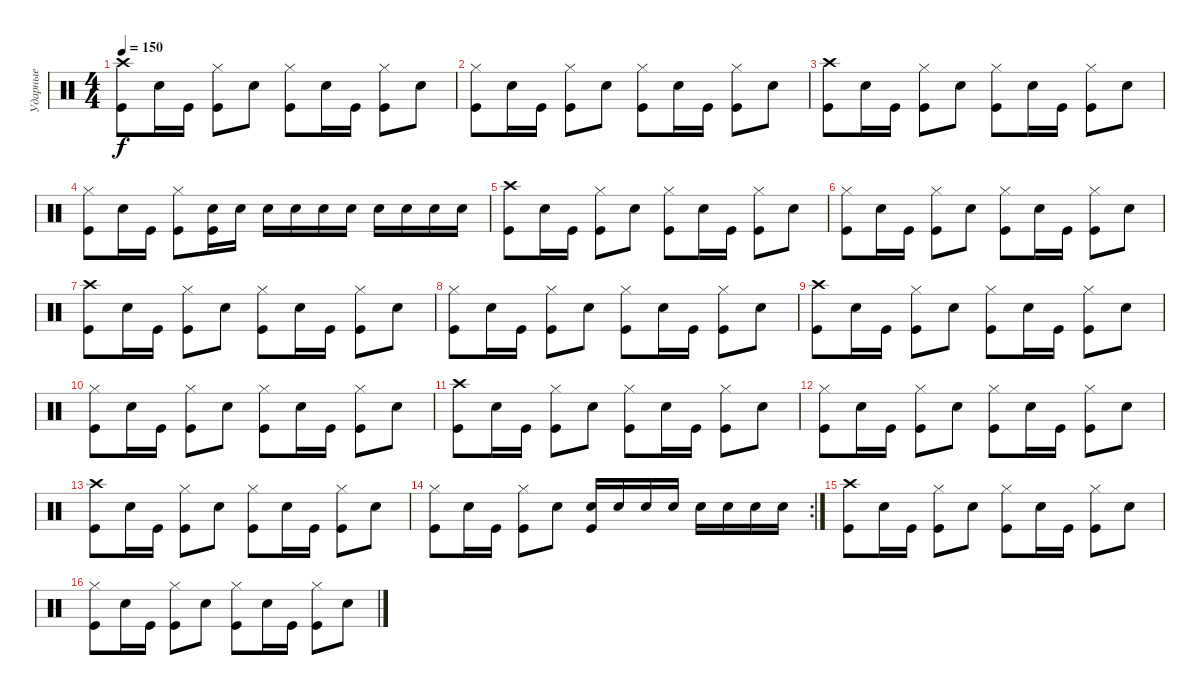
\track ("Ударные" "Ударные") {instrument percussion}
\staff {score}
\articulation defaults
\ts (4 4)
\tempo 150
\clef neutral
\ks c
("Crash high (hit)" "Kick (hit)").8{dy f} "Snare (hit) 2".16 "Kick (hit)".16 ("Hi-Hat (closed)" "Kick (hit)").8 "Snare (hit) 2".8 ("Hi-Hat (closed)" "Kick (hit)").8 "Snare (hit) 2".16 "Kick (hit)".16 ("Hi-Hat (closed)" "Kick (hit)").8 "Snare (hit) 2".8 |
("Hi-Hat (closed)" "Kick (hit)").8 "Snare (hit) 2".16 "Kick (hit)".16 ("Hi-Hat (closed)" "Kick (hit)").8 "Snare (hit) 2".8 ("Hi-Hat (closed)" "Kick (hit)").8 "Snare (hit) 2".16 "Kick (hit)".16 ("Hi-Hat (closed)" "Kick (hit)").8 "Snare (hit) 2".8 |
("Crash high (hit)" "Kick (hit)").8 "Snare (hit) 2".16 "Kick (hit)".16 ("Hi-Hat (closed)" "Kick (hit)").8 "Snare (hit) 2".8 ("Hi-Hat (closed)" "Kick (hit)").8 "Snare (hit) 2".16 "Kick (hit)".16 ("Hi-Hat (closed)" "Kick (hit)").8 "Snare (hit) 2".8 |
("Hi-Hat (closed)" "Kick (hit)").8 "Snare (hit) 2".16 "Kick (hit)".16 ("Hi-Hat (closed)" "Kick (hit)").8 ("Electric Snare (hit)" "Kick (hit)").16 "Electric Snare (hit)".16 "Electric Snare (hit)".16 "Electric Snare (hit)".16 "Electric Snare (hit)".16 "Electric Snare (hit)".16 "Electric Snare (hit)".16 "Electric Snare (hit)".16 "Electric Snare (hit)".16 "Electric Snare (hit)".16 |
("Crash high (hit)" "Kick (hit)").8 "Snare (hit) 2".16 "Kick (hit)".16 ("Hi-Hat (closed)" "Kick (hit)").8 "Snare (hit) 2".8 ("Hi-Hat (closed)" "Kick (hit)").8 "Snare (hit) 2".16 "Kick (hit)".16 ("Hi-Hat (closed)" "Kick (hit)").8 "Snare (hit) 2".8 |
("Hi-Hat (closed)" "Kick (hit)").8 "Snare (hit) 2".16 "Kick (hit)".16 ("Hi-Hat (closed)" "Kick (hit)").8 "Snare (hit) 2".8 ("Hi-Hat (closed)" "Kick (hit)").8 "Snare (hit) 2".16 "Kick (hit)".16 ("Hi-Hat (closed)" "Kick (hit)").8 "Snare (hit) 2".8 |
("Crash high (hit)" "Kick (hit)").8 "Snare (hit) 2".16 "Kick (hit)".16 ("Hi-Hat (closed)" "Kick (hit)").8 "Snare (hit) 2".8 ("Hi-Hat (closed)" "Kick (hit)").8 "Snare (hit) 2".16 "Kick (hit)".16 ("Hi-Hat (closed)" "Kick (hit)").8 "Snare (hit) 2".8 |
("Hi-Hat (closed)" "Kick (hit)").8 "Snare (hit) 2".16 "Kick (hit)".16 ("Hi-Hat (closed)" "Kick (hit)").8 "Snare (hit) 2".8 ("Hi-Hat (closed)" "Kick (hit)").8 "Snare (hit) 2".16 "Kick (hit)".16 ("Hi-Hat (closed)" "Kick (hit)").8 "Snare (hit) 2".8 |
("Crash high (hit)" "Kick (hit)").8 "Snare (hit) 2".16 "Kick (hit)".16 ("Hi-Hat (closed)" "Kick (hit)").8 "Snare (hit) 2".8 ("Hi-Hat (closed)" "Kick (hit)").8 "Snare (hit) 2".16 "Kick (hit)".16 ("Hi-Hat (closed)" "Kick (hit)").8 "Snare (hit) 2".8 |
("Hi-Hat (closed)" "Kick (hit)").8 "Snare (hit) 2".16 "Kick (hit)".16 ("Hi-Hat (closed)" "Kick (hit)").8 "Snare (hit) 2".8 ("Hi-Hat (closed)" "Kick (hit)").8 "Snare (hit) 2".16 "Kick (hit)".16 ("Hi-Hat (closed)" "Kick (hit)").8 "Snare (hit) 2".8 |
("Crash high (hit)" "Kick (hit)").8 "Snare (hit) 2".16 "Kick (hit)".16 ("Hi-Hat (closed)" "Kick (hit)").8 "Snare (hit) 2".8 ("Hi-Hat (closed)" "Kick (hit)").8 "Snare (hit) 2".16 "Kick (hit)".16 ("Hi-Hat (closed)" "Kick (hit)").8 "Snare (hit) 2".8 |
("Hi-Hat (closed)" "Kick (hit)").8 "Snare (hit) 2".16 "Kick (hit)".16 ("Hi-Hat (closed)" "Kick (hit)").8 "Snare (hit) 2".8 ("Hi-Hat (closed)" "Kick (hit)").8 "Snare (hit) 2".16 "Kick (hit)".16 ("Hi-Hat (closed)" "Kick (hit)").8 "Snare (hit) 2".8 |
("Crash high (hit)" "Kick (hit)").8 "Snare (hit) 2".16 "Kick (hit)".16 ("Hi-Hat (closed)" "Kick (hit)").8 "Snare (hit) 2".8 ("Hi-Hat (closed)" "Kick (hit)").8 "Snare (hit) 2".16 "Kick (hit)".16 ("Hi-Hat (closed)" "Kick (hit)").8 "Snare (hit) 2".8 |
\rc 2
("Hi-Hat (closed)" "Kick (hit)").8 "Snare (hit) 2".16 "Kick (hit)".16 ("Hi-Hat (closed)" "Kick (hit)").8 "Snare (hit) 2".8 ("Electric Snare (hit)" "Kick (hit)").16 "Electric Snare (hit)".16 "Electric Snare (hit)".16 "Electric Snare (hit)".16 "Electric Snare (hit)".16 "Electric Snare (hit)".16 "Electric Snare (hit)".16 "Electric Snare (hit)".16 |
("Crash high (hit)" "Kick (hit)").8 "Snare (hit) 2".16 "Kick (hit)".16 ("Hi-Hat (closed)" "Kick (hit)").8 "Snare (hit) 2".8 ("Hi-Hat (closed)" "Kick (hit)").8 "Snare (hit) 2".16 "Kick (hit)".16 ("Hi-Hat (closed)" "Kick (hit)").8 "Snare (hit) 2".8 |
("Hi-Hat (closed)" "Kick (hit)").8 "Snare (hit) 2".16 "Kick (hit)".16 ("Hi-Hat (closed)" "Kick (hit)").8 "Snare (hit) 2".8 ("Hi-Hat (closed)" "Kick (hit)").8 "Snare (hit) 2".16 "Kick (hit)".16 ("Hi-Hat (closed)" "Kick (hit)").8 "Snare (hit) 2".8
